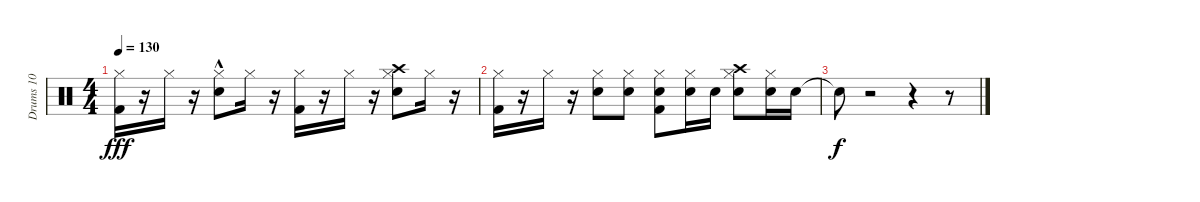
\track ("Drums 10            " "Drums 10  ") {instrument percussion}
\staff {score}
\articulation defaults
\ts (4 4)
\tempo 130
\clef neutral
\ks c
("Kick (hit) 2" "Hi-Hat (closed)").16{dy fff volume 3} r.16 "Hi-Hat (closed)".16{volume 3} r.16 ("Snare (hit) 2"{hac} "Hi-Hat (closed)").8{volume 2} "Hi-Hat (closed)".16{volume 2} r.16 ("Kick (hit) 2" "Hi-Hat (closed)").16{volume 2} r.16 "Hi-Hat (closed)".16{volume 2} r.16 ("Snare (hit) 2" "Hi-Hat (closed)" "Crash high (hit)").8{volume 2} "Hi-Hat (closed)".16 r.16 |
("Kick (hit) 2" "Hi-Hat (closed)").16 r.16 "Hi-Hat (closed)".16{volume 1} r.16 ("Snare (hit) 2" "Hi-Hat (closed)").8{volume 1} ("Snare (hit) 2" "Hi-Hat (closed)").8{volume 0} ("Kick (hit) 2" "Snare (hit) 2" "Hi-Hat (closed)").8{volume 0} ("Snare (hit) 2" "Hi-Hat (closed)").16 "Snare (hit) 2".16 ("Snare (hit) 2" "Hi-Hat (closed)" "Crash high (hit)").8 ("Snare (hit) 2" "Hi-Hat (closed)").16 "Snare (hit) 2".16 |
"Snare (hit)"{t}.8{dy f} r.2 r.4 r.8
